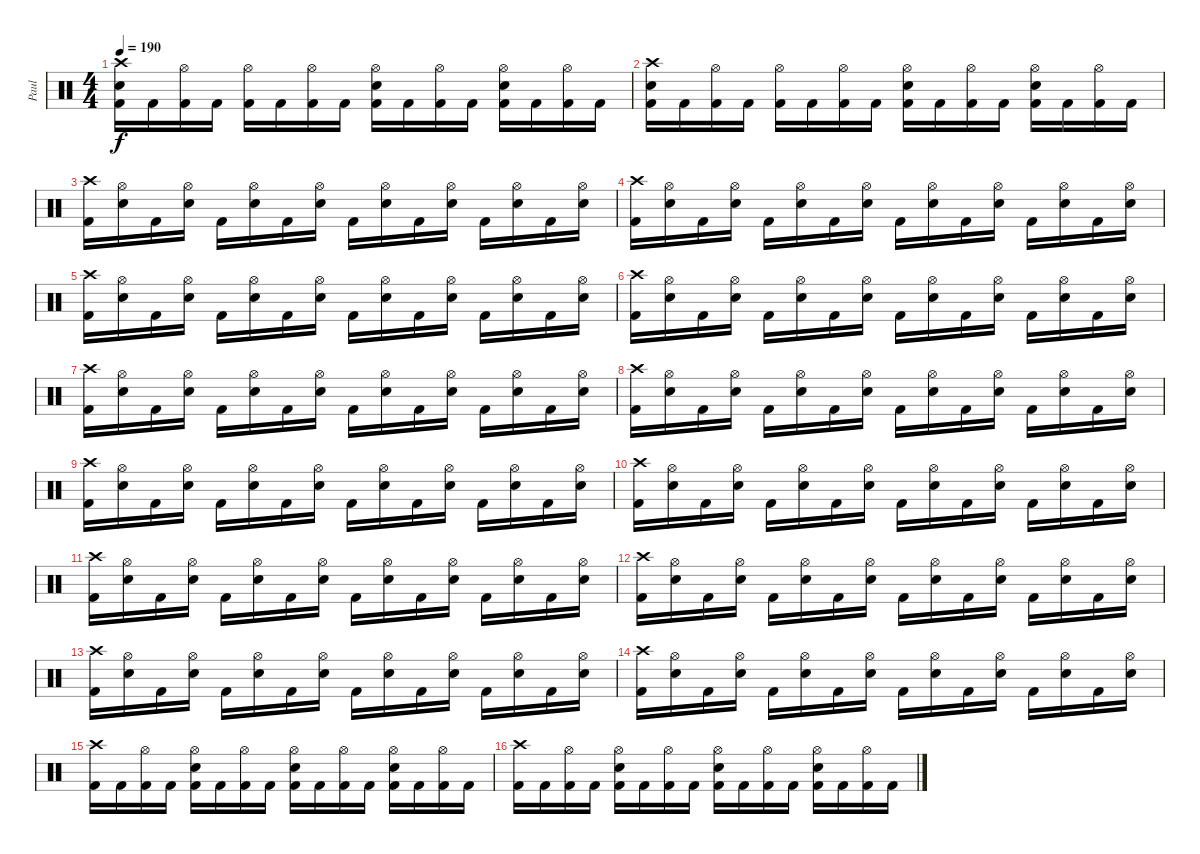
\track ("Paul" "Paul") {instrument percussion}
\staff {score}
\articulation defaults
\ts (4 4)
\tempo 190
\clef neutral
\ks c
("Crash high (hit)" "Snare (hit) 2" "Kick (hit) 2").16{dy f} "Kick (hit) 2".16 ("Hi-Hat (open)" "Kick (hit) 2").16 "Kick (hit) 2".16 ("Hi-Hat (open)" "Kick (hit) 2").16 "Kick (hit) 2".16 ("Hi-Hat (open)" "Kick (hit) 2").16 "Kick (hit) 2".16 ("Hi-Hat (open)" "Snare (hit) 2" "Kick (hit) 2").16 "Kick (hit) 2".16 ("Hi-Hat (open)" "Kick (hit) 2").16 "Kick (hit) 2".16 ("Hi-Hat (open)" "Snare (hit) 2" "Kick (hit) 2").16 "Kick (hit) 2".16 ("Hi-Hat (open)" "Kick (hit) 2").16 "Kick (hit) 2".16 |
("Crash high (hit)" "Snare (hit) 2" "Kick (hit) 2").16 "Kick (hit) 2".16 ("Hi-Hat (open)" "Kick (hit) 2").16 "Kick (hit) 2".16 ("Hi-Hat (open)" "Kick (hit) 2").16 "Kick (hit) 2".16 ("Hi-Hat (open)" "Kick (hit) 2").16 "Kick (hit) 2".16 ("Hi-Hat (open)" "Snare (hit) 2" "Kick (hit) 2").16 "Kick (hit) 2".16 ("Hi-Hat (open)" "Kick (hit) 2").16 "Kick (hit) 2".16 ("Hi-Hat (open)" "Snare (hit) 2" "Kick (hit) 2").16 "Kick (hit) 2".16 ("Hi-Hat (open)" "Kick (hit) 2").16 "Kick (hit) 2".16 |
("Crash high (hit)" "Kick (hit) 2").16 ("Hi-Hat (open)" "Snare (hit) 2").16 "Kick (hit) 2".16 ("Hi-Hat (open)" "Snare (hit) 2").16 "Kick (hit) 2".16 ("Hi-Hat (open)" "Snare (hit) 2").16 "Kick (hit) 2".16 ("Hi-Hat (open)" "Snare (hit) 2").16 "Kick (hit) 2".16 ("Hi-Hat (open)" "Snare (hit) 2").16 "Kick (hit) 2".16 ("Hi-Hat (open)" "Snare (hit) 2").16 "Kick (hit) 2".16 ("Hi-Hat (open)" "Snare (hit) 2").16 "Kick (hit) 2".16 ("Hi-Hat (open)" "Snare (hit) 2").16 |
("Crash high (hit)" "Kick (hit) 2").16 ("Hi-Hat (open)" "Snare (hit) 2").16 "Kick (hit) 2".16 ("Hi-Hat (open)" "Snare (hit) 2").16 "Kick (hit) 2".16 ("Hi-Hat (open)" "Snare (hit) 2").16 "Kick (hit) 2".16 ("Hi-Hat (open)" "Snare (hit) 2").16 "Kick (hit) 2".16 ("Hi-Hat (open)" "Snare (hit) 2").16 "Kick (hit) 2".16 ("Hi-Hat (open)" "Snare (hit) 2").16 "Kick (hit) 2".16 ("Hi-Hat (open)" "Snare (hit) 2").16 "Kick (hit) 2".16 ("Hi-Hat (open)" "Snare (hit) 2").16 |
("Crash high (hit)" "Kick (hit) 2").16 ("Hi-Hat (open)" "Snare (hit) 2").16 "Kick (hit) 2".16 ("Hi-Hat (open)" "Snare (hit) 2").16 "Kick (hit) 2".16 ("Hi-Hat (open)" "Snare (hit) 2").16 "Kick (hit) 2".16 ("Hi-Hat (open)" "Snare (hit) 2").16 "Kick (hit) 2".16 ("Hi-Hat (open)" "Snare (hit) 2").16 "Kick (hit) 2".16 ("Hi-Hat (open)" "Snare (hit) 2").16 "Kick (hit) 2".16 ("Hi-Hat (open)" "Snare (hit) 2").16 "Kick (hit) 2".16 ("Hi-Hat (open)" "Snare (hit) 2").16 |
("Crash high (hit)" "Kick (hit) 2").16 ("Hi-Hat (open)" "Snare (hit) 2").16 "Kick (hit) 2".16 ("Hi-Hat (open)" "Snare (hit) 2").16 "Kick (hit) 2".16 ("Hi-Hat (open)" "Snare (hit) 2").16 "Kick (hit) 2".16 ("Hi-Hat (open)" "Snare (hit) 2").16 "Kick (hit) 2".16 ("Hi-Hat (open)" "Snare (hit) 2").16 "Kick (hit) 2".16 ("Hi-Hat (open)" "Snare (hit) 2").16 "Kick (hit) 2".16 ("Hi-Hat (open)" "Snare (hit) 2").16 "Kick (hit) 2".16 ("Hi-Hat (open)" "Snare (hit) 2").16 |
("Crash high (hit)" "Kick (hit) 2").16 ("Hi-Hat (open)" "Snare (hit) 2").16 "Kick (hit) 2".16 ("Hi-Hat (open)" "Snare (hit) 2").16 "Kick (hit) 2".16 ("Hi-Hat (open)" "Snare (hit) 2").16 "Kick (hit) 2".16 ("Hi-Hat (open)" "Snare (hit) 2").16 "Kick (hit) 2".16 ("Hi-Hat (open)" "Snare (hit) 2").16 "Kick (hit) 2".16 ("Hi-Hat (open)" "Snare (hit) 2").16 "Kick (hit) 2".16 ("Hi-Hat (open)" "Snare (hit) 2").16 "Kick (hit) 2".16 ("Hi-Hat (open)" "Snare (hit) 2").16 |
("Crash high (hit)" "Kick (hit) 2").16 ("Hi-Hat (open)" "Snare (hit) 2").16 "Kick (hit) 2".16 ("Hi-Hat (open)" "Snare (hit) 2").16 "Kick (hit) 2".16 ("Hi-Hat (open)" "Snare (hit) 2").16 "Kick (hit) 2".16 ("Hi-Hat (open)" "Snare (hit) 2").16 "Kick (hit) 2".16 ("Hi-Hat (open)" "Snare (hit) 2").16 "Kick (hit) 2".16 ("Hi-Hat (open)" "Snare (hit) 2").16 "Kick (hit) 2".16 ("Hi-Hat (open)" "Snare (hit) 2").16 "Kick (hit) 2".16 ("Hi-Hat (open)" "Snare (hit) 2").16 |
("Crash high (hit)" "Kick (hit) 2").16 ("Hi-Hat (open)" "Snare (hit) 2").16 "Kick (hit) 2".16 ("Hi-Hat (open)" "Snare (hit) 2").16 "Kick (hit) 2".16 ("Hi-Hat (open)" "Snare (hit) 2").16 "Kick (hit) 2".16 ("Hi-Hat (open)" "Snare (hit) 2").16 "Kick (hit) 2".16 ("Hi-Hat (open)" "Snare (hit) 2").16 "Kick (hit) 2".16 ("Hi-Hat (open)" "Snare (hit) 2").16 "Kick (hit) 2".16 ("Hi-Hat (open)" "Snare (hit) 2").16 "Kick (hit) 2".16 ("Hi-Hat (open)" "Snare (hit) 2").16 |
("Crash high (hit)" "Kick (hit) 2").16 ("Hi-Hat (open)" "Snare (hit) 2").16 "Kick (hit) 2".16 ("Hi-Hat (open)" "Snare (hit) 2").16 "Kick (hit) 2".16 ("Hi-Hat (open)" "Snare (hit) 2").16 "Kick (hit) 2".16 ("Hi-Hat (open)" "Snare (hit) 2").16 "Kick (hit) 2".16 ("Hi-Hat (open)" "Snare (hit) 2").16 "Kick (hit) 2".16 ("Hi-Hat (open)" "Snare (hit) 2").16 "Kick (hit) 2".16 ("Hi-Hat (open)" "Snare (hit) 2").16 "Kick (hit) 2".16 ("Hi-Hat (open)" "Snare (hit) 2").16 |
("Crash high (hit)" "Kick (hit) 2").16 ("Hi-Hat (open)" "Snare (hit) 2").16 "Kick (hit) 2".16 ("Hi-Hat (open)" "Snare (hit) 2").16 "Kick (hit) 2".16 ("Hi-Hat (open)" "Snare (hit) 2").16 "Kick (hit) 2".16 ("Hi-Hat (open)" "Snare (hit) 2").16 "Kick (hit) 2".16 ("Hi-Hat (open)" "Snare (hit) 2").16 "Kick (hit) 2".16 ("Hi-Hat (open)" "Snare (hit) 2").16 "Kick (hit) 2".16 ("Hi-Hat (open)" "Snare (hit) 2").16 "Kick (hit) 2".16 ("Hi-Hat (open)" "Snare (hit) 2").16 |
("Crash high (hit)" "Kick (hit) 2").16 ("Hi-Hat (open)" "Snare (hit) 2").16 "Kick (hit) 2".16 ("Hi-Hat (open)" "Snare (hit) 2").16 "Kick (hit) 2".16 ("Hi-Hat (open)" "Snare (hit) 2").16 "Kick (hit) 2".16 ("Hi-Hat (open)" "Snare (hit) 2").16 "Kick (hit) 2".16 ("Hi-Hat (open)" "Snare (hit) 2").16 "Kick (hit) 2".16 ("Hi-Hat (open)" "Snare (hit) 2").16 "Kick (hit) 2".16 ("Hi-Hat (open)" "Snare (hit) 2").16 "Kick (hit) 2".16 ("Hi-Hat (open)" "Snare (hit) 2").16 |
("Crash high (hit)" "Kick (hit) 2").16 ("Hi-Hat (open)" "Snare (hit) 2").16 "Kick (hit) 2".16 ("Hi-Hat (open)" "Snare (hit) 2").16 "Kick (hit) 2".16 ("Hi-Hat (open)" "Snare (hit) 2").16 "Kick (hit) 2".16 ("Hi-Hat (open)" "Snare (hit) 2").16 "Kick (hit) 2".16 ("Hi-Hat (open)" "Snare (hit) 2").16 "Kick (hit) 2".16 ("Hi-Hat (open)" "Snare (hit) 2").16 "Kick (hit) 2".16 ("Hi-Hat (open)" "Snare (hit) 2").16 "Kick (hit) 2".16 ("Hi-Hat (open)" "Snare (hit) 2").16 |
("Crash high (hit)" "Kick (hit) 2").16 ("Hi-Hat (open)" "Snare (hit) 2").16 "Kick (hit) 2".16 ("Hi-Hat (open)" "Snare (hit) 2").16 "Kick (hit) 2".16 ("Hi-Hat (open)" "Snare (hit) 2").16 "Kick (hit) 2".16 ("Hi-Hat (open)" "Snare (hit) 2").16 "Kick (hit) 2".16 ("Hi-Hat (open)" "Snare (hit) 2").16 "Kick (hit) 2".16 ("Hi-Hat (open)" "Snare (hit) 2").16 "Kick (hit) 2".16 ("Hi-Hat (open)" "Snare (hit) 2").16 "Kick (hit) 2".16 ("Hi-Hat (open)" "Snare (hit) 2").16 |
("Crash high (hit)" "Kick (hit) 2").16 "Kick (hit) 2".16 ("Hi-Hat (open)" "Kick (hit) 2").16 "Kick (hit) 2".16 ("Hi-Hat (open)" "Snare (hit) 2" "Kick (hit) 2").16 "Kick (hit) 2".16 ("Hi-Hat (open)" "Kick (hit) 2").16 "Kick (hit) 2".16 ("Hi-Hat (open)" "Snare (hit) 2" "Kick (hit) 2").16 "Kick (hit) 2".16 ("Hi-Hat (open)" "Kick (hit) 2").16 "Kick (hit) 2".16 ("Hi-Hat (open)" "Snare (hit) 2" "Kick (hit) 2").16 "Kick (hit) 2".16 ("Hi-Hat (open)" "Kick (hit) 2").16 "Kick (hit) 2".16 |
("Crash high (hit)" "Kick (hit) 2").16 "Kick (hit) 2".16 ("Hi-Hat (open)" "Kick (hit) 2").16 "Kick (hit) 2".16 ("Hi-Hat (open)" "Snare (hit) 2" "Kick (hit) 2").16 "Kick (hit) 2".16 ("Hi-Hat (open)" "Kick (hit) 2").16 "Kick (hit) 2".16 ("Hi-Hat (open)" "Snare (hit) 2" "Kick (hit) 2").16 "Kick (hit) 2".16 ("Hi-Hat (open)" "Kick (hit) 2").16 "Kick (hit) 2".16 ("Hi-Hat (open)" "Snare (hit) 2" "Kick (hit) 2").16 "Kick (hit) 2".16 ("Hi-Hat (open)" "Kick (hit) 2").16 "Kick (hit) 2".16
